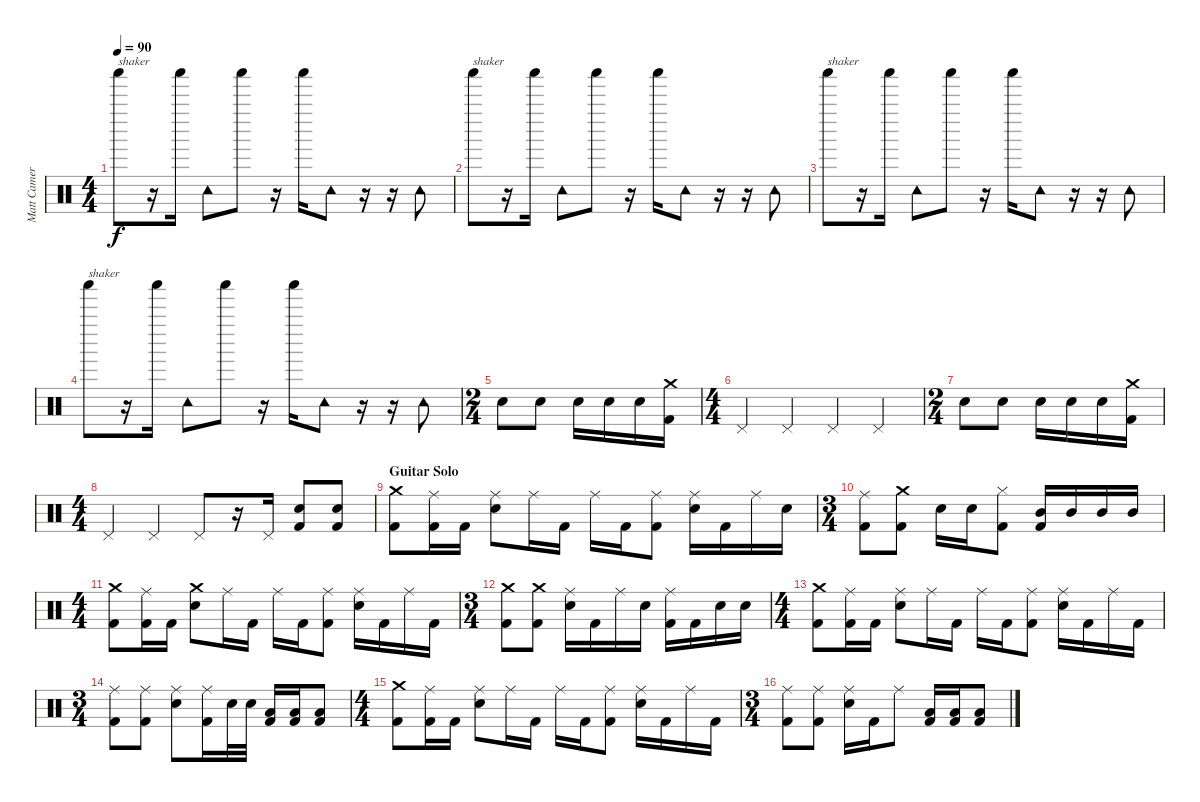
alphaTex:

\track ("Matt Cameron" "Matt Camer") {instrument percussion}
\staff {score}
\articulation defaults
\ts (4 4)
\tempo 90
\clef neutral
\ks c "Shaker (hit)".8{txt "shaker" dy f}
r.16 "Shaker (hit)".16 "Tambourine (hit)".8 "Shaker (hit)".8 r.16 "Shaker (hit)".16 "Tambourine (hit)".8 r.16 r.16 "Tambourine (hit)".8 |
"Shaker (hit)".8{txt "shaker"} r.16 "Shaker (hit)".16 "Tambourine (hit)".8 "Shaker (hit)".8 r.16 "Shaker (hit)".16 "Tambourine (hit)".8 r.16 r.16 "Tambourine (hit)".8 |
"Shaker (hit)".8{txt "shaker"} r.16 "Shaker (hit)".16 "Tambourine (hit)".8 "Shaker (hit)".8 r.16 "Shaker (hit)".16 "Tambourine (hit)".8 r.16 r.16 "Tambourine (hit)".8 |
"Shaker (hit)".8{txt "shaker"} r.16 "Shaker (hit)".16 "Tambourine (hit)".8 "Shaker (hit)".8 r.16 "Shaker (hit)".16 "Tambourine (hit)".8 r.16 r.16 "Tambourine (hit)".8 |
\ts (2 4)
"Electric Snare (hit)".8 "Electric Snare (hit)".8 "Electric Snare (hit)".16 "Electric Snare (hit)".16 "Electric Snare (hit)".16 ("Crash medium (hit)" "Kick (hit) 2").16 |
\ts (4 4)
"Pedal Hi-Hat (hit)".4 "Pedal Hi-Hat (hit)".4 "Pedal Hi-Hat (hit)".4 "Pedal Hi-Hat (hit)".4 |
\ts (2 4)
"Electric Snare (hit)".8 "Electric Snare (hit)".8 "Electric Snare (hit)".16 "Electric Snare (hit)".16 "Electric Snare (hit)".16 ("Crash medium (hit)" "Kick (hit) 2").16 |
\ts (4 4)
"Pedal Hi-Hat (hit)".4 "Pedal Hi-Hat (hit)".4 "Pedal Hi-Hat (hit)".8 r.16 "Pedal Hi-Hat (hit)".16 ("Electric Snare (hit)" "Kick (hit) 2").8 ("Electric Snare (hit)" "Kick (hit) 2").8 |
\section ("" "Guitar Solo")
("Crash medium (hit)" "Kick (hit) 2").8 ("Ride (middle)" "Kick (hit) 2").16 "Kick (hit) 2".16 ("Ride (middle)" "Electric Snare (hit)").8 "Ride (middle)".16 "Kick (hit) 2".16 "Ride (middle)".16 "Kick (hit) 2".16 ("Ride (middle)" "Kick (hit) 2").8 ("Ride (middle)" "Electric Snare (hit)").16 "Kick (hit) 2".16 "Ride (middle)".16 "Electric Snare (hit)".16 |
\ts (3 4)
("Ride (middle)" "Kick (hit) 2").8 ("Crash medium (hit)" "Kick (hit) 2").8 "Electric Snare (hit)".16 "Electric Snare (hit)".16 ("Hi-Hat (closed)" "Kick (hit) 2").8 ("Mid Tom (hit)" "Kick (hit) 2").16 "Mid Tom (hit)".16 "Mid Tom (hit)".16 "Mid Tom (hit)".16 |
\ts (4 4)
("Crash medium (hit)" "Kick (hit) 2").8 ("Ride (middle)" "Kick (hit) 2").16 "Kick (hit) 2".16 ("Crash medium (hit)" "Electric Snare (hit)").8 "Ride (middle)".16 "Kick (hit) 2".16 "Ride (middle)".16 "Kick (hit) 2".16 ("Ride (middle)" "Kick (hit) 2").8 ("Ride (middle)" "Electric Snare (hit)").16 "Kick (hit) 2".16 "Ride (middle)".16 "Kick (hit) 2".16 |
\ts (3 4)
("Crash medium (hit)" "Kick (hit) 2").8 ("Crash medium (hit)" "Kick (hit) 2").8 ("Ride (middle)" "Electric Snare (hit)").16 "Kick (hit) 2".16 "Ride (middle)".16 "Electric Snare (hit)".16 ("Ride (middle)" "Kick (hit) 2").16 "Kick (hit) 2".16 "Electric Snare (hit)".16 "Electric Snare (hit)".16 |
\ts (4 4)
("Crash medium (hit)" "Kick (hit) 2").8 ("Ride (middle)" "Kick (hit) 2").16 "Kick (hit) 2".16 ("Ride (middle)" "Electric Snare (hit)").8 "Ride (middle)".16 "Kick (hit) 2".16 "Ride (middle)".16 "Kick (hit) 2".16 ("Ride (middle)" "Kick (hit) 2").8 ("Ride (middle)" "Electric Snare (hit)").16 "Kick (hit) 2".16 "Ride (middle)".16 "Kick (hit) 2".16 |
\ts (3 4)
("Ride (middle)" "Kick (hit) 2").8 ("Ride (middle)" "Kick (hit) 2").8 ("Ride (middle)" "Electric Snare (hit)").8 ("Ride (middle)" "Kick (hit) 2").16 "Electric Snare (hit)".32 "Electric Snare (hit)".32 ("Low Tom (hit)" "Kick (hit) 2").16 ("Low Tom (hit)" "Kick (hit) 2").16 ("Low Tom (hit)" "Kick (hit) 2").8 |
\ts (4 4)
("Crash medium (hit)" "Kick (hit) 2").8 ("Ride (middle)" "Kick (hit) 2").16 "Kick (hit) 2".16 ("Ride (middle)" "Electric Snare (hit)").8 "Ride (middle)".16 "Kick (hit) 2".16 "Ride (middle)".16 "Kick (hit) 2".16 ("Ride (middle)" "Kick (hit) 2").8 ("Ride (middle)" "Electric Snare (hit)").16 "Kick (hit) 2".16 "Ride (middle)".16 "Kick (hit) 2".16 |
\ts (3 4)
("Ride (middle)" "Kick (hit) 2").8 ("Ride (middle)" "Kick (hit) 2").8 ("Ride (middle)" "Electric Snare (hit)").16 "Kick (hit) 2".16 "Ride (middle)".8 ("Low Tom (hit)" "Kick (hit) 2").16 ("Low Tom (hit)" "Kick (hit) 2").16 ("Low Tom (hit)" "Kick (hit) 2").8
